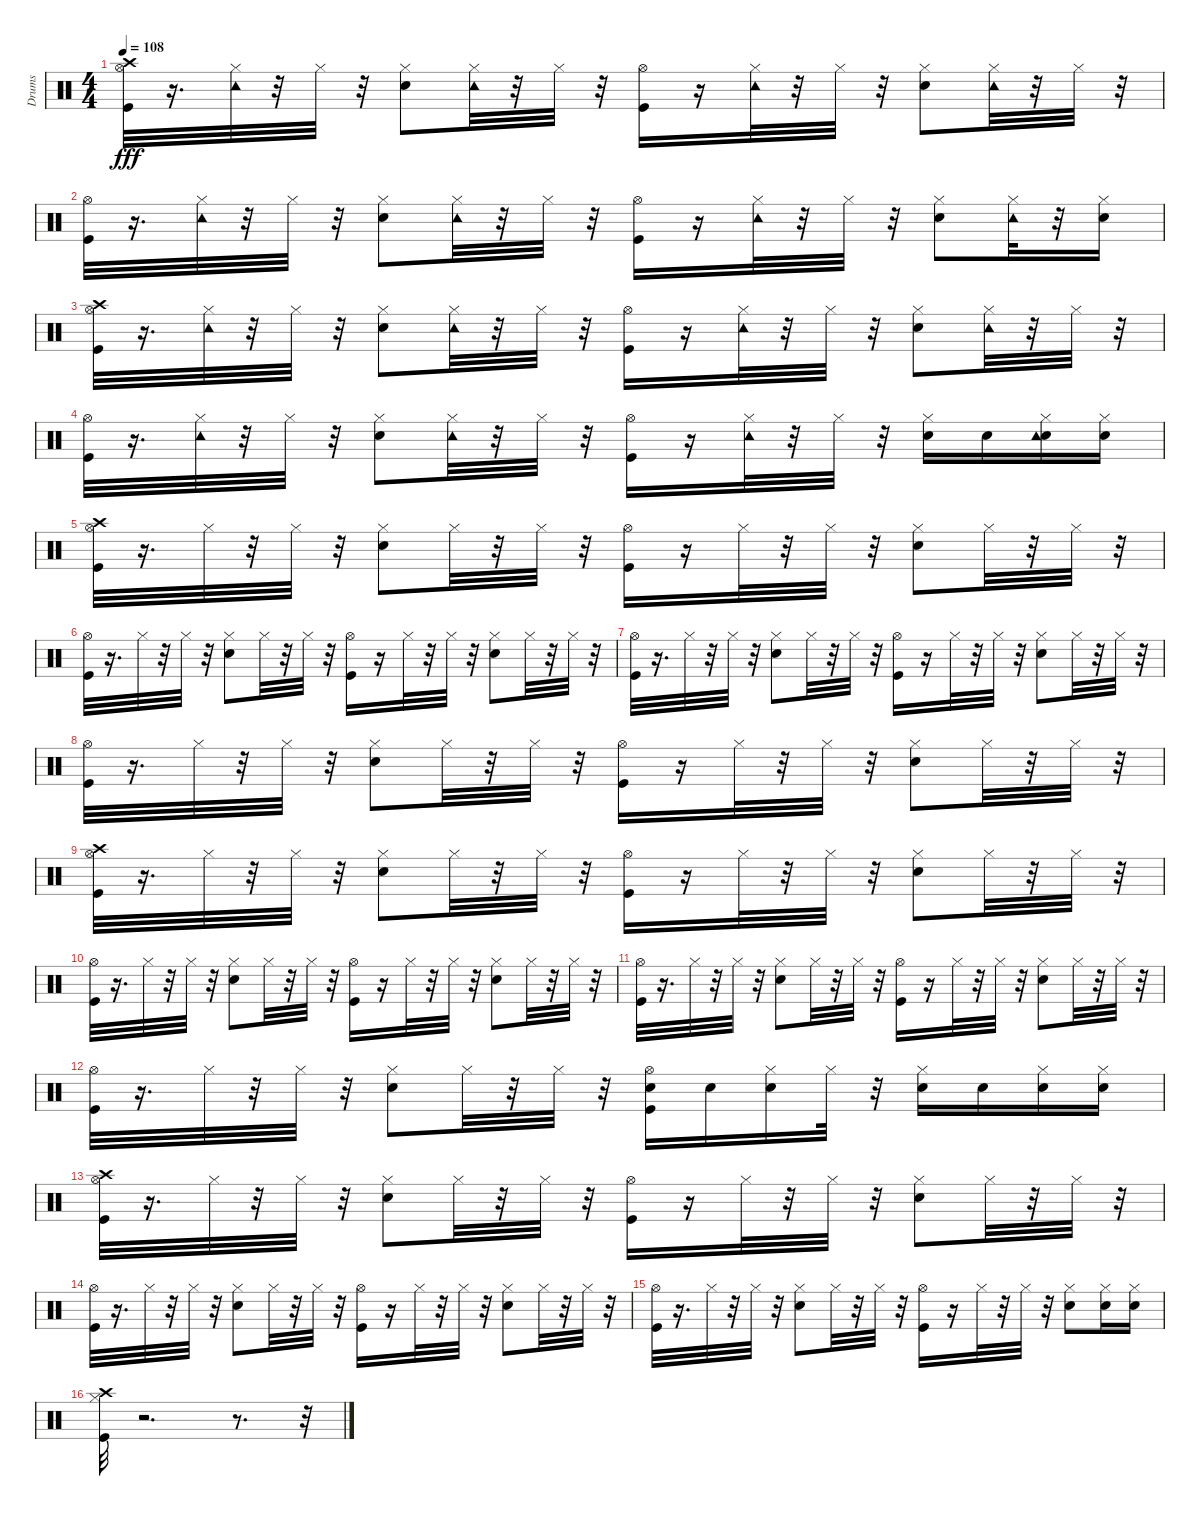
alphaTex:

\track ("Drums               " "Drums     ") {instrument percussion}
\staff {score}
\articulation defaults
\ts (4 4)
\tempo 108
\clef neutral
\ks c
("Kick (hit)" "Hi-Hat (open)" "Crash high (hit)").32{dy fff} r.16{d} ("Hi-Hat (closed)" "Tambourine (hit)").32 r.32 "Hi-Hat (closed)".32 r.32 ("Snare (hit) 2" "Hi-Hat (closed)").8 ("Hi-Hat (closed)" "Tambourine (hit)").32 r.32 "Hi-Hat (closed)".32 r.32 ("Kick (hit)" "Hi-Hat (open)").16 r.16 ("Hi-Hat (closed)" "Tambourine (hit)").32 r.32 "Hi-Hat (closed)".32 r.32 ("Snare (hit) 2" "Hi-Hat (closed)").8 ("Hi-Hat (closed)" "Tambourine (hit)").32 r.32 "Hi-Hat (closed)".32 r.32 |
("Kick (hit)" "Hi-Hat (open)").32 r.16{d} ("Hi-Hat (closed)" "Tambourine (hit)").32 r.32 "Hi-Hat (closed)".32 r.32 ("Snare (hit) 2" "Hi-Hat (closed)").8 ("Hi-Hat (closed)" "Tambourine (hit)").32 r.32 "Hi-Hat (closed)".32 r.32 ("Kick (hit)" "Hi-Hat (open)").16 r.16 ("Hi-Hat (closed)" "Tambourine (hit)").32 r.32 "Hi-Hat (closed)".32 r.32 ("Snare (hit) 2" "Hi-Hat (closed)").8 ("Hi-Hat (closed)" "Tambourine (hit)").32 r.32 ("Snare (hit) 2" "Hi-Hat (closed)").16 |
("Kick (hit)" "Hi-Hat (open)" "Crash high (hit)").32 r.16{d} ("Hi-Hat (closed)" "Tambourine (hit)").32 r.32 "Hi-Hat (closed)".32 r.32 ("Snare (hit) 2" "Hi-Hat (closed)").8 ("Hi-Hat (closed)" "Tambourine (hit)").32 r.32 "Hi-Hat (closed)".32 r.32 ("Kick (hit)" "Hi-Hat (open)").16 r.16 ("Hi-Hat (closed)" "Tambourine (hit)").32 r.32 "Hi-Hat (closed)".32 r.32 ("Snare (hit) 2" "Hi-Hat (closed)").8 ("Hi-Hat (closed)" "Tambourine (hit)").32 r.32 "Hi-Hat (closed)".32 r.32 |
("Kick (hit)" "Hi-Hat (open)").32 r.16{d} ("Hi-Hat (closed)" "Tambourine (hit)").32 r.32 "Hi-Hat (closed)".32 r.32 ("Snare (hit) 2" "Hi-Hat (closed)").8 ("Hi-Hat (closed)" "Tambourine (hit)").32 r.32 "Hi-Hat (closed)".32 r.32 ("Kick (hit)" "Hi-Hat (open)").16 r.16 ("Hi-Hat (closed)" "Tambourine (hit)").32 r.32 "Hi-Hat (closed)".32 r.32 ("Snare (hit) 2" "Hi-Hat (closed)").16 "Snare (hit) 2".16 ("Snare (hit) 2" "Hi-Hat (closed)" "Tambourine (hit)").16 ("Snare (hit) 2" "Hi-Hat (closed)").16 |
("Kick (hit)" "Hi-Hat (open)" "Crash high (hit)").32 r.16{d} "Hi-Hat (closed)".32 r.32 "Hi-Hat (closed)".32 r.32 ("Snare (hit) 2" "Hi-Hat (closed)").8 "Hi-Hat (closed)".32 r.32 "Hi-Hat (closed)".32 r.32 ("Kick (hit)" "Hi-Hat (open)").16 r.16 "Hi-Hat (closed)".32 r.32 "Hi-Hat (closed)".32 r.32 ("Snare (hit) 2" "Hi-Hat (closed)").8 "Hi-Hat (closed)".32 r.32 "Hi-Hat (closed)".32 r.32 |
("Kick (hit)" "Hi-Hat (open)").32 r.16{d} "Hi-Hat (closed)".32 r.32 "Hi-Hat (closed)".32 r.32 ("Snare (hit) 2" "Hi-Hat (closed)").8 "Hi-Hat (closed)".32 r.32 "Hi-Hat (closed)".32 r.32 ("Kick (hit)" "Hi-Hat (open)").16 r.16 "Hi-Hat (closed)".32 r.32 "Hi-Hat (closed)".32 r.32 ("Snare (hit) 2" "Hi-Hat (closed)").8 "Hi-Hat (closed)".32 r.32 "Hi-Hat (closed)".32 r.32 |
("Kick (hit)" "Hi-Hat (open)").32 r.16{d} "Hi-Hat (closed)".32 r.32 "Hi-Hat (closed)".32 r.32 ("Snare (hit) 2" "Hi-Hat (closed)").8 "Hi-Hat (closed)".32 r.32 "Hi-Hat (closed)".32 r.32 ("Kick (hit)" "Hi-Hat (open)").16 r.16 "Hi-Hat (closed)".32 r.32 "Hi-Hat (closed)".32 r.32 ("Snare (hit) 2" "Hi-Hat (closed)").8 "Hi-Hat (closed)".32 r.32 "Hi-Hat (closed)".32 r.32 |
("Kick (hit)" "Hi-Hat (open)").32 r.16{d} "Hi-Hat (closed)".32 r.32 "Hi-Hat (closed)".32 r.32 ("Snare (hit) 2" "Hi-Hat (closed)").8 "Hi-Hat (closed)".32 r.32 "Hi-Hat (closed)".32 r.32 ("Kick (hit)" "Hi-Hat (open)").16 r.16 "Hi-Hat (closed)".32 r.32 "Hi-Hat (closed)".32 r.32 ("Snare (hit) 2" "Hi-Hat (closed)").8 "Hi-Hat (closed)".32 r.32 "Hi-Hat (closed)".32 r.32 |
("Kick (hit)" "Hi-Hat (open)" "Crash high (hit)").32 r.16{d} "Hi-Hat (closed)".32 r.32 "Hi-Hat (closed)".32 r.32 ("Snare (hit) 2" "Hi-Hat (closed)").8 "Hi-Hat (closed)".32 r.32 "Hi-Hat (closed)".32 r.32 ("Kick (hit)" "Hi-Hat (open)").16 r.16 "Hi-Hat (closed)".32 r.32 "Hi-Hat (closed)".32 r.32 ("Snare (hit) 2" "Hi-Hat (closed)").8 "Hi-Hat (closed)".32 r.32 "Hi-Hat (closed)".32 r.32 |
("Kick (hit)" "Hi-Hat (open)").32 r.16{d} "Hi-Hat (closed)".32 r.32 "Hi-Hat (closed)".32 r.32 ("Snare (hit) 2" "Hi-Hat (closed)").8 "Hi-Hat (closed)".32 r.32 "Hi-Hat (closed)".32 r.32 ("Kick (hit)" "Hi-Hat (open)").16 r.16 "Hi-Hat (closed)".32 r.32 "Hi-Hat (closed)".32 r.32 ("Snare (hit) 2" "Hi-Hat (closed)").8 "Hi-Hat (closed)".32 r.32 "Hi-Hat (closed)".32 r.32 |
("Kick (hit)" "Hi-Hat (open)").32 r.16{d} "Hi-Hat (closed)".32 r.32 "Hi-Hat (closed)".32 r.32 ("Snare (hit) 2" "Hi-Hat (closed)").8 "Hi-Hat (closed)".32 r.32 "Hi-Hat (closed)".32 r.32 ("Kick (hit)" "Hi-Hat (open)").16 r.16 "Hi-Hat (closed)".32 r.32 "Hi-Hat (closed)".32 r.32 ("Snare (hit) 2" "Hi-Hat (closed)").8 "Hi-Hat (closed)".32 r.32 "Hi-Hat (closed)".32 r.32 |
("Kick (hit)" "Hi-Hat (open)").32 r.16{d} "Hi-Hat (closed)".32 r.32 "Hi-Hat (closed)".32 r.32 ("Snare (hit) 2" "Hi-Hat (closed)").8 "Hi-Hat (closed)".32 r.32 "Hi-Hat (closed)".32 r.32 ("Kick (hit)" "Snare (hit) 2" "Hi-Hat (open)").16 "Snare (hit) 2".16 ("Snare (hit) 2" "Hi-Hat (closed)").16 "Hi-Hat (closed)".32 r.32 ("Snare (hit) 2" "Hi-Hat (closed)").16 "Snare (hit) 2".16 ("Snare (hit) 2" "Hi-Hat (closed)").16 ("Snare (hit) 2" "Hi-Hat (closed)").16 |
("Kick (hit)" "Hi-Hat (open)" "Crash high (hit)").32 r.16{d} "Hi-Hat (closed)".32 r.32 "Hi-Hat (closed)".32 r.32 ("Snare (hit) 2" "Hi-Hat (closed)").8 "Hi-Hat (closed)".32 r.32 "Hi-Hat (closed)".32 r.32 ("Kick (hit)" "Hi-Hat (open)").16 r.16 "Hi-Hat (closed)".32 r.32 "Hi-Hat (closed)".32 r.32 ("Snare (hit) 2" "Hi-Hat (closed)").8 "Hi-Hat (closed)".32 r.32 "Hi-Hat (closed)".32 r.32 |
("Kick (hit)" "Hi-Hat (open)").32 r.16{d} "Hi-Hat (closed)".32 r.32 "Hi-Hat (closed)".32 r.32 ("Snare (hit) 2" "Hi-Hat (closed)").8 "Hi-Hat (closed)".32 r.32 "Hi-Hat (closed)".32 r.32 ("Kick (hit)" "Hi-Hat (open)").16 r.16 "Hi-Hat (closed)".32 r.32 "Hi-Hat (closed)".32 r.32 ("Snare (hit) 2" "Hi-Hat (closed)").8 "Hi-Hat (closed)".32 r.32 "Hi-Hat (closed)".32 r.32 |
("Kick (hit)" "Hi-Hat (open)").32 r.16{d} "Hi-Hat (closed)".32 r.32 "Hi-Hat (closed)".32 r.32 ("Snare (hit) 2" "Hi-Hat (closed)").8 "Hi-Hat (closed)".32 r.32 "Hi-Hat (closed)".32 r.32 ("Kick (hit)" "Hi-Hat (open)").16 r.16 "Hi-Hat (closed)".32 r.32 "Hi-Hat (closed)".32 r.32 ("Snare (hit) 2" "Hi-Hat (closed)").8 ("Snare (hit) 2" "Hi-Hat (closed)").16 ("Snare (hit) 2" "Hi-Hat (closed)").16 |
("Kick (hit)" "Hi-Hat (closed)" "Crash high (hit)").32 r.2{d} r.8{d} r.32
